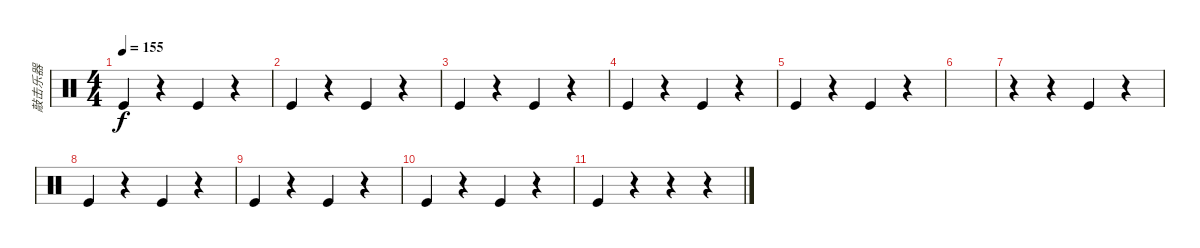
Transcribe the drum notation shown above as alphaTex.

\track ("敲击乐器" "敲击乐器") {instrument percussion}
\staff {score}
\articulation defaults
\ts (4 4)
\tempo 155
\clef neutral
\ks c "Kick (hit)".4{dy f}
r.4 "Kick (hit)".4 r.4 |
"Kick (hit)".4 r.4 "Kick (hit)".4 r.4 |
"Kick (hit)".4 r.4 "Kick (hit)".4 r.4 |
"Kick (hit)".4 r.4 "Kick (hit)".4 r.4 |
"Kick (hit)".4 r.4 "Kick (hit)".4 r.4 |
|
r.4 r.4 "Kick (hit)".4 r.4 |
"Kick (hit)".4 r.4 "Kick (hit)".4 r.4 |
"Kick (hit)".4 r.4 "Kick (hit)".4 r.4 |
"Kick (hit)".4 r.4 "Kick (hit)".4 r.4 |
"Kick (hit)".4 r.4 r.4 r.4
